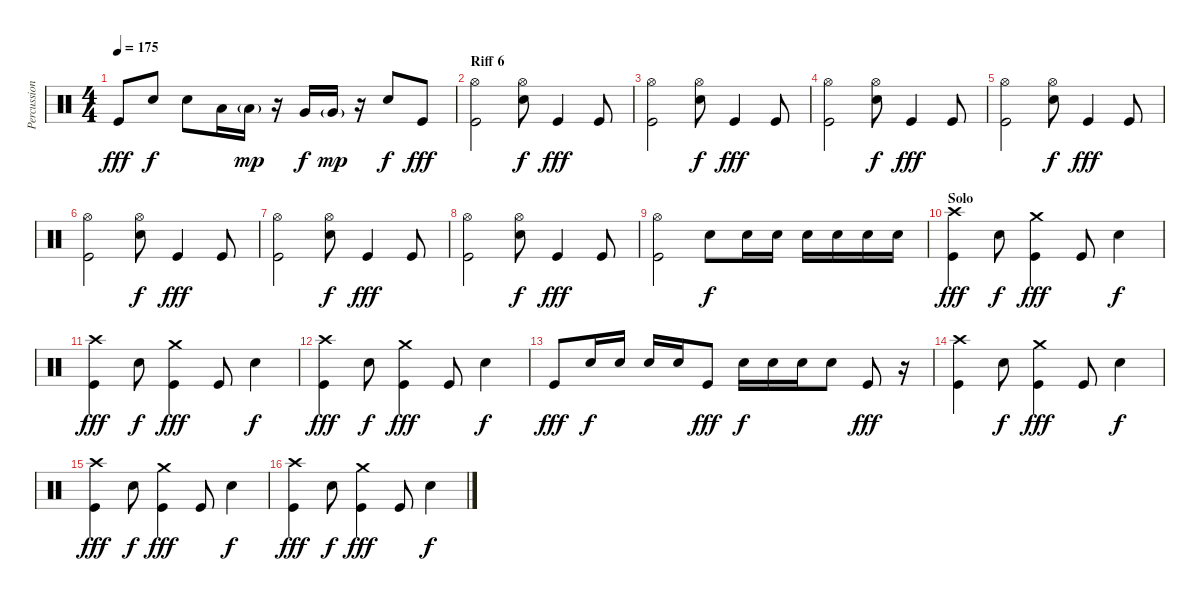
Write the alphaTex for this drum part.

\track ("Percussions" "Percussion") {instrument percussion}
\staff {score}
\articulation defaults
\ts (4 4)
\tempo 175
\clef neutral
\ks c "Kick (hit)".8{dy fff} "Electric Snare (hit)".8{dy f} "Electric Snare (hit)".8 "Low Tom (hit)".16 "Low Tom (hit)"{g}.16{dy mp}
r.16 "Very Low Tom (hit)".16{dy f} "Very Low Tom (hit)"{g}.16{dy mp} r.16 "Electric Snare (hit)".8{dy f} "Kick (hit)".8{dy fff} |
\section ("" "Riff 6")
("Hi-Hat (open)" "Kick (hit)").2 ("Hi-Hat (open)" "Electric Snare (hit)").8{dy f} "Kick (hit)".4{dy fff} "Kick (hit)".8 |
("Hi-Hat (open)" "Kick (hit)").2 ("Hi-Hat (open)" "Electric Snare (hit)").8{dy f} "Kick (hit)".4{dy fff} "Kick (hit)".8 |
("Hi-Hat (open)" "Kick (hit)").2 ("Hi-Hat (open)" "Electric Snare (hit)").8{dy f} "Kick (hit)".4{dy fff} "Kick (hit)".8 |
("Hi-Hat (open)" "Kick (hit)").2 ("Hi-Hat (open)" "Electric Snare (hit)").8{dy f} "Kick (hit)".4{dy fff} "Kick (hit)".8 |
("Hi-Hat (open)" "Kick (hit)").2 ("Hi-Hat (open)" "Electric Snare (hit)").8{dy f} "Kick (hit)".4{dy fff} "Kick (hit)".8 |
("Hi-Hat (open)" "Kick (hit)").2 ("Hi-Hat (open)" "Electric Snare (hit)").8{dy f} "Kick (hit)".4{dy fff} "Kick (hit)".8 |
("Hi-Hat (open)" "Kick (hit)").2 ("Hi-Hat (open)" "Electric Snare (hit)").8{dy f} "Kick (hit)".4{dy fff} "Kick (hit)".8 |
("Hi-Hat (open)" "Kick (hit)").2 "Electric Snare (hit)".8{dy f} "Electric Snare (hit)".16 "Electric Snare (hit)".16 "Electric Snare (hit)".16 "Electric Snare (hit)".16 "Electric Snare (hit)".16 "Electric Snare (hit)".16 |
\section ("" "Solo")
("Crash high (hit)" "Kick (hit)").4{dy fff} "Electric Snare (hit)".8{dy f} ("Crash medium (hit)" "Kick (hit)").4{dy fff} "Kick (hit)".8 "Electric Snare (hit)".4{dy f} |
("Crash high (hit)" "Kick (hit)").4{dy fff} "Electric Snare (hit)".8{dy f} ("Crash medium (hit)" "Kick (hit)").4{dy fff} "Kick (hit)".8 "Electric Snare (hit)".4{dy f} |
("Crash high (hit)" "Kick (hit)").4{dy fff} "Electric Snare (hit)".8{dy f} ("Crash medium (hit)" "Kick (hit)").4{dy fff} "Kick (hit)".8 "Electric Snare (hit)".4{dy f} |
"Kick (hit)".8{dy fff} "Electric Snare (hit)".16{dy f} "Electric Snare (hit)".16 "Electric Snare (hit)".16 "Electric Snare (hit)".16 "Kick (hit)".8{dy fff} "Electric Snare (hit)".16{dy f} "Electric Snare (hit)".16 "Electric Snare (hit)".16 "Electric Snare (hit)".8 "Kick (hit)".8{dy fff} r.16 |
("Crash high (hit)" "Kick (hit)").4 "Electric Snare (hit)".8{dy f} ("Crash medium (hit)" "Kick (hit)").4{dy fff} "Kick (hit)".8 "Electric Snare (hit)".4{dy f} |
("Crash high (hit)" "Kick (hit)").4{dy fff} "Electric Snare (hit)".8{dy f} ("Crash medium (hit)" "Kick (hit)").4{dy fff} "Kick (hit)".8 "Electric Snare (hit)".4{dy f} |
("Crash high (hit)" "Kick (hit)").4{dy fff} "Electric Snare (hit)".8{dy f} ("Crash medium (hit)" "Kick (hit)").4{dy fff} "Kick (hit)".8 "Electric Snare (hit)".4{dy f}
